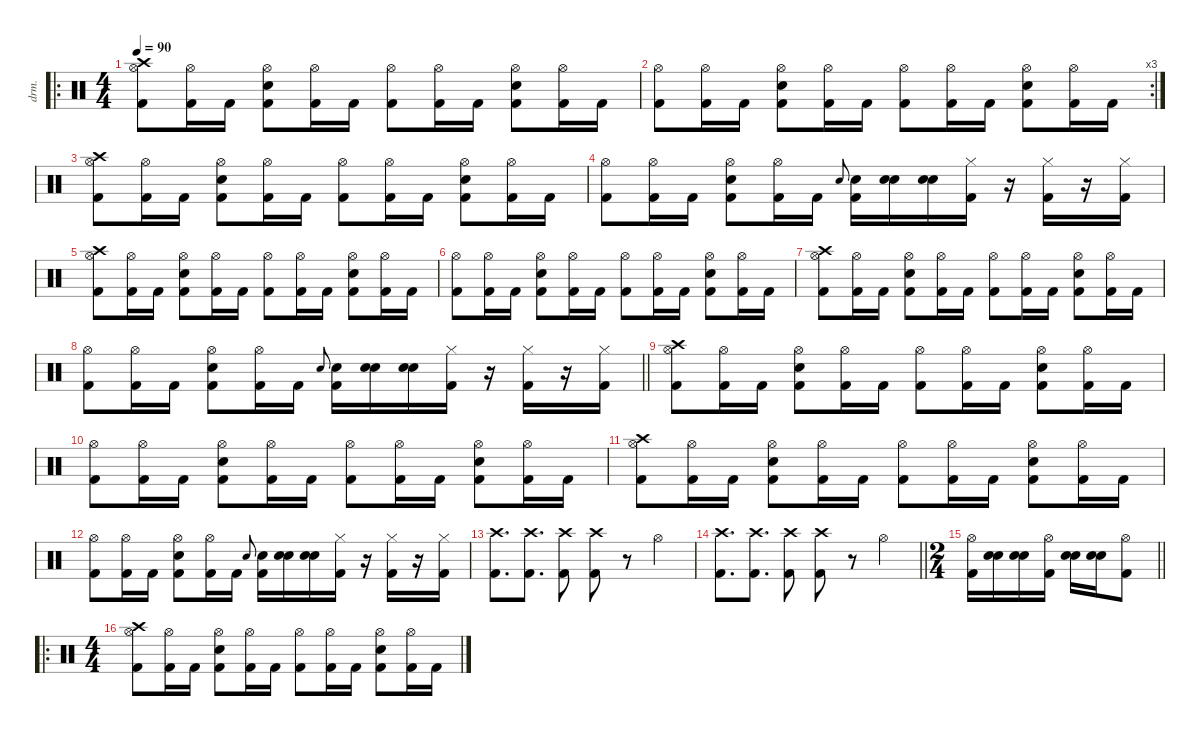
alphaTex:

\defaultSystemsLayout 4
\hideDynamics
\bracketExtendMode nobrackets
\otherSystemsTrackNameOrientation horizontal
\track ("Percussion " "drm.") {instrument percussion}
\staff {score}
\articulation defaults
\ro
\ts (4 4)
\beaming (8 2 2 2 2)
\tempo 90
\clef neutral
\ks c
("Crash high (hit)" "Hi-Hat (open)" "Kick (hit) 2").8{dy f beam Down} ("Hi-Hat (open)" "Kick (hit) 2").16{beam Down} "Kick (hit) 2".16{beam Down} ("Hi-Hat (open)" "Snare (hit) 2" "Kick (hit) 2").8{beam Down} ("Hi-Hat (open)" "Kick (hit) 2").16{beam Down} "Kick (hit) 2".16{beam Down} ("Hi-Hat (open)" "Kick (hit) 2").8{beam Down} ("Hi-Hat (open)" "Kick (hit) 2").16{beam Down} "Kick (hit) 2".16{beam Down} ("Hi-Hat (open)" "Snare (hit) 2" "Kick (hit) 2").8{beam Down} ("Hi-Hat (open)" "Kick (hit) 2").16{beam Down} "Kick (hit) 2".16{beam Down} |
\rc 3
("Hi-Hat (open)" "Kick (hit) 2").8{beam Down} ("Hi-Hat (open)" "Kick (hit) 2").16{beam Down} "Kick (hit) 2".16{beam Down} ("Hi-Hat (open)" "Snare (hit) 2" "Kick (hit) 2").8{beam Down} ("Hi-Hat (open)" "Kick (hit) 2").16{beam Down} "Kick (hit) 2".16{beam Down} ("Hi-Hat (open)" "Kick (hit) 2").8{beam Down} ("Hi-Hat (open)" "Kick (hit) 2").16{beam Down} "Kick (hit) 2".16{beam Down} ("Hi-Hat (open)" "Snare (hit) 2" "Kick (hit) 2").8{beam Down} ("Hi-Hat (open)" "Kick (hit) 2").16{beam Down} "Kick (hit) 2".16{beam Down} |
("Crash high (hit)" "Hi-Hat (open)" "Kick (hit) 2").8{beam Down} ("Hi-Hat (open)" "Kick (hit) 2").16{beam Down} "Kick (hit) 2".16{beam Down} ("Hi-Hat (open)" "Snare (hit) 2" "Kick (hit) 2").8{beam Down} ("Hi-Hat (open)" "Kick (hit) 2").16{beam Down} "Kick (hit) 2".16{beam Down} ("Hi-Hat (open)" "Kick (hit) 2").8{beam Down} ("Hi-Hat (open)" "Kick (hit) 2").16{beam Down} "Kick (hit) 2".16{beam Down} ("Hi-Hat (open)" "Snare (hit) 2" "Kick (hit) 2").8{beam Down} ("Hi-Hat (open)" "Kick (hit) 2").16{beam Down} "Kick (hit) 2".16{beam Down} |
("Hi-Hat (open)" "Kick (hit) 2").8{beam Down} ("Hi-Hat (open)" "Kick (hit) 2").16{beam Down} "Kick (hit) 2".16{beam Down} ("Hi-Hat (open)" "Snare (hit) 2" "Kick (hit) 2").8{beam Down} ("Hi-Hat (open)" "Kick (hit) 2").16{beam Down} "Kick (hit) 2".16{beam Down} "Snare (hit) 2".8{gr onbeat dy mf beam Up} ("Snare (hit) 2" "Kick (hit) 2").16{dy f beam Down} ("Snare (hit) 2" "Snare (hit) 2").16{beam Down} ("Snare (hit) 2" "Snare (hit) 2").16{beam Down} ("Hi-Hat (closed)" "Kick (hit) 2").16{beam Down} r.16{beam Down} ("Hi-Hat (closed)" "Kick (hit) 2").16{beam Down} r.16{beam Down} ("Hi-Hat (closed)" "Kick (hit) 2").16{beam Down} |
("Crash high (hit)" "Hi-Hat (open)" "Kick (hit) 2").8{beam Down} ("Hi-Hat (open)" "Kick (hit) 2").16{beam Down} "Kick (hit) 2".16{beam Down} ("Hi-Hat (open)" "Snare (hit) 2" "Kick (hit) 2").8{beam Down} ("Hi-Hat (open)" "Kick (hit) 2").16{beam Down} "Kick (hit) 2".16{beam Down} ("Hi-Hat (open)" "Kick (hit) 2").8{beam Down} ("Hi-Hat (open)" "Kick (hit) 2").16{beam Down} "Kick (hit) 2".16{beam Down} ("Hi-Hat (open)" "Snare (hit) 2" "Kick (hit) 2").8{beam Down} ("Hi-Hat (open)" "Kick (hit) 2").16{beam Down} "Kick (hit) 2".16{beam Down} |
("Hi-Hat (open)" "Kick (hit) 2").8{beam Down} ("Hi-Hat (open)" "Kick (hit) 2").16{beam Down} "Kick (hit) 2".16{beam Down} ("Hi-Hat (open)" "Snare (hit) 2" "Kick (hit) 2").8{beam Down} ("Hi-Hat (open)" "Kick (hit) 2").16{beam Down} "Kick (hit) 2".16{beam Down} ("Hi-Hat (open)" "Kick (hit) 2").8{beam Down} ("Hi-Hat (open)" "Kick (hit) 2").16{beam Down} "Kick (hit) 2".16{beam Down} ("Hi-Hat (open)" "Snare (hit) 2" "Kick (hit) 2").8{beam Down} ("Hi-Hat (open)" "Kick (hit) 2").16{beam Down} "Kick (hit) 2".16{beam Down} |
("Crash high (hit)" "Hi-Hat (open)" "Kick (hit) 2").8{beam Down} ("Hi-Hat (open)" "Kick (hit) 2").16{beam Down} "Kick (hit) 2".16{beam Down} ("Hi-Hat (open)" "Snare (hit) 2" "Kick (hit) 2").8{beam Down} ("Hi-Hat (open)" "Kick (hit) 2").16{beam Down} "Kick (hit) 2".16{beam Down} ("Hi-Hat (open)" "Kick (hit) 2").8{beam Down} ("Hi-Hat (open)" "Kick (hit) 2").16{beam Down} "Kick (hit) 2".16{beam Down} ("Hi-Hat (open)" "Snare (hit) 2" "Kick (hit) 2").8{beam Down} ("Hi-Hat (open)" "Kick (hit) 2").16{beam Down} "Kick (hit) 2".16{beam Down} |
\barLineRight lightlight
("Hi-Hat (open)" "Kick (hit) 2").8{beam Down} ("Hi-Hat (open)" "Kick (hit) 2").16{beam Down} "Kick (hit) 2".16{beam Down} ("Hi-Hat (open)" "Snare (hit) 2" "Kick (hit) 2").8{beam Down} ("Hi-Hat (open)" "Kick (hit) 2").16{beam Down} "Kick (hit) 2".16{beam Down} "Snare (hit) 2".8{gr onbeat dy mf beam Up} ("Snare (hit) 2" "Kick (hit) 2").16{dy f beam Down} ("Snare (hit) 2" "Snare (hit) 2").16{beam Down} ("Snare (hit) 2" "Snare (hit) 2").16{beam Down} ("Hi-Hat (closed)" "Kick (hit) 2").16{beam Down} r.16{beam Down} ("Hi-Hat (closed)" "Kick (hit) 2").16{beam Down} r.16{beam Down} ("Hi-Hat (closed)" "Kick (hit) 2").16{beam Down} |
("Crash high (hit)" "Hi-Hat (open)" "Kick (hit) 2").8{beam Down} ("Hi-Hat (open)" "Kick (hit) 2").16{beam Down} "Kick (hit) 2".16{beam Down} ("Hi-Hat (open)" "Snare (hit) 2" "Kick (hit) 2").8{beam Down} ("Hi-Hat (open)" "Kick (hit) 2").16{beam Down} "Kick (hit) 2".16{beam Down} ("Hi-Hat (open)" "Kick (hit) 2").8{beam Down} ("Hi-Hat (open)" "Kick (hit) 2").16{beam Down} "Kick (hit) 2".16{beam Down} ("Hi-Hat (open)" "Snare (hit) 2" "Kick (hit) 2").8{beam Down} ("Hi-Hat (open)" "Kick (hit) 2").16{beam Down} "Kick (hit) 2".16{beam Down} |
("Hi-Hat (open)" "Kick (hit) 2").8{beam Down} ("Hi-Hat (open)" "Kick (hit) 2").16{beam Down} "Kick (hit) 2".16{beam Down} ("Hi-Hat (open)" "Snare (hit) 2" "Kick (hit) 2").8{beam Down} ("Hi-Hat (open)" "Kick (hit) 2").16{beam Down} "Kick (hit) 2".16{beam Down} ("Hi-Hat (open)" "Kick (hit) 2").8{beam Down} ("Hi-Hat (open)" "Kick (hit) 2").16{beam Down} "Kick (hit) 2".16{beam Down} ("Hi-Hat (open)" "Snare (hit) 2" "Kick (hit) 2").8{beam Down} ("Hi-Hat (open)" "Kick (hit) 2").16{beam Down} "Kick (hit) 2".16{beam Down} |
("Crash high (hit)" "Hi-Hat (open)" "Kick (hit) 2").8{beam Down} ("Hi-Hat (open)" "Kick (hit) 2").16{beam Down} "Kick (hit) 2".16{beam Down} ("Hi-Hat (open)" "Snare (hit) 2" "Kick (hit) 2").8{beam Down} ("Hi-Hat (open)" "Kick (hit) 2").16{beam Down} "Kick (hit) 2".16{beam Down} ("Hi-Hat (open)" "Kick (hit) 2").8{beam Down} ("Hi-Hat (open)" "Kick (hit) 2").16{beam Down} "Kick (hit) 2".16{beam Down} ("Hi-Hat (open)" "Snare (hit) 2" "Kick (hit) 2").8{beam Down} ("Hi-Hat (open)" "Kick (hit) 2").16{beam Down} "Kick (hit) 2".16{beam Down} |
("Hi-Hat (open)" "Kick (hit) 2").8{beam Down} ("Hi-Hat (open)" "Kick (hit) 2").16{beam Down} "Kick (hit) 2".16{beam Down} ("Hi-Hat (open)" "Snare (hit) 2" "Kick (hit) 2").8{beam Down} ("Hi-Hat (open)" "Kick (hit) 2").16{beam Down} "Kick (hit) 2".16{beam Down} "Snare (hit) 2".8{gr onbeat dy mf beam Up} ("Snare (hit) 2" "Kick (hit) 2").16{dy f beam Down} ("Snare (hit) 2" "Snare (hit) 2").16{beam Down} ("Snare (hit) 2" "Snare (hit) 2").16{beam Down} ("Hi-Hat (closed)" "Kick (hit) 2").16{beam Down} r.16{beam Down} ("Hi-Hat (closed)" "Kick (hit) 2").16{beam Down} r.16{beam Down} ("Hi-Hat (closed)" "Kick (hit) 2").16{beam Down} |
("Crash high (hit)" "Kick (hit) 2").8{d beam Down} ("Crash high (hit)" "Kick (hit) 2").8{d beam Down} ("Crash high (hit)" "Kick (hit) 2").8{beam Down} ("Crash high (hit)" "Kick (hit) 2").8{beam Down} r.8{beam Down} "Hi-Hat (open)".4{beam Down} |
\barLineRight lightlight
("Crash high (hit)" "Kick (hit) 2").8{d beam Down} ("Crash high (hit)" "Kick (hit) 2").8{d beam Down} ("Crash high (hit)" "Kick (hit) 2").8{beam Down} ("Crash high (hit)" "Kick (hit) 2").8{beam Down} r.8{beam Down} "Hi-Hat (open)".4{beam Down} |
\ts (2 4)
\beaming (8 2 2 2 2)
\barLineRight lightlight
("Hi-Hat (open)" "Kick (hit) 2").16{beam Down} ("Snare (hit) 2" "Snare (hit) 2").16{beam Down} ("Snare (hit) 2" "Snare (hit) 2").16{beam Down} ("Hi-Hat (open)" "Kick (hit) 2").16{beam Down} ("Snare (hit) 2" "Snare (hit) 2").16{beam Down} ("Snare (hit) 2" "Snare (hit) 2").16{beam Down} ("Hi-Hat (open)" "Kick (hit) 2").8{beam Down} |
\ro
\ts (4 4)
\beaming (8 2 2 2 2)
("Crash high (hit)" "Hi-Hat (open)" "Kick (hit) 2").8{beam Down} ("Hi-Hat (open)" "Kick (hit) 2").16{beam Down} "Kick (hit) 2".16{beam Down} ("Hi-Hat (open)" "Snare (hit) 2" "Kick (hit) 2").8{beam Down} ("Hi-Hat (open)" "Kick (hit) 2").16{beam Down} "Kick (hit) 2".16{beam Down} ("Hi-Hat (open)" "Kick (hit) 2").8{beam Down} ("Hi-Hat (open)" "Kick (hit) 2").16{beam Down} "Kick (hit) 2".16{beam Down} ("Hi-Hat (open)" "Snare (hit) 2" "Kick (hit) 2").8{beam Down} ("Hi-Hat (open)" "Kick (hit) 2").16{beam Down} "Kick (hit) 2".16{beam Down}
